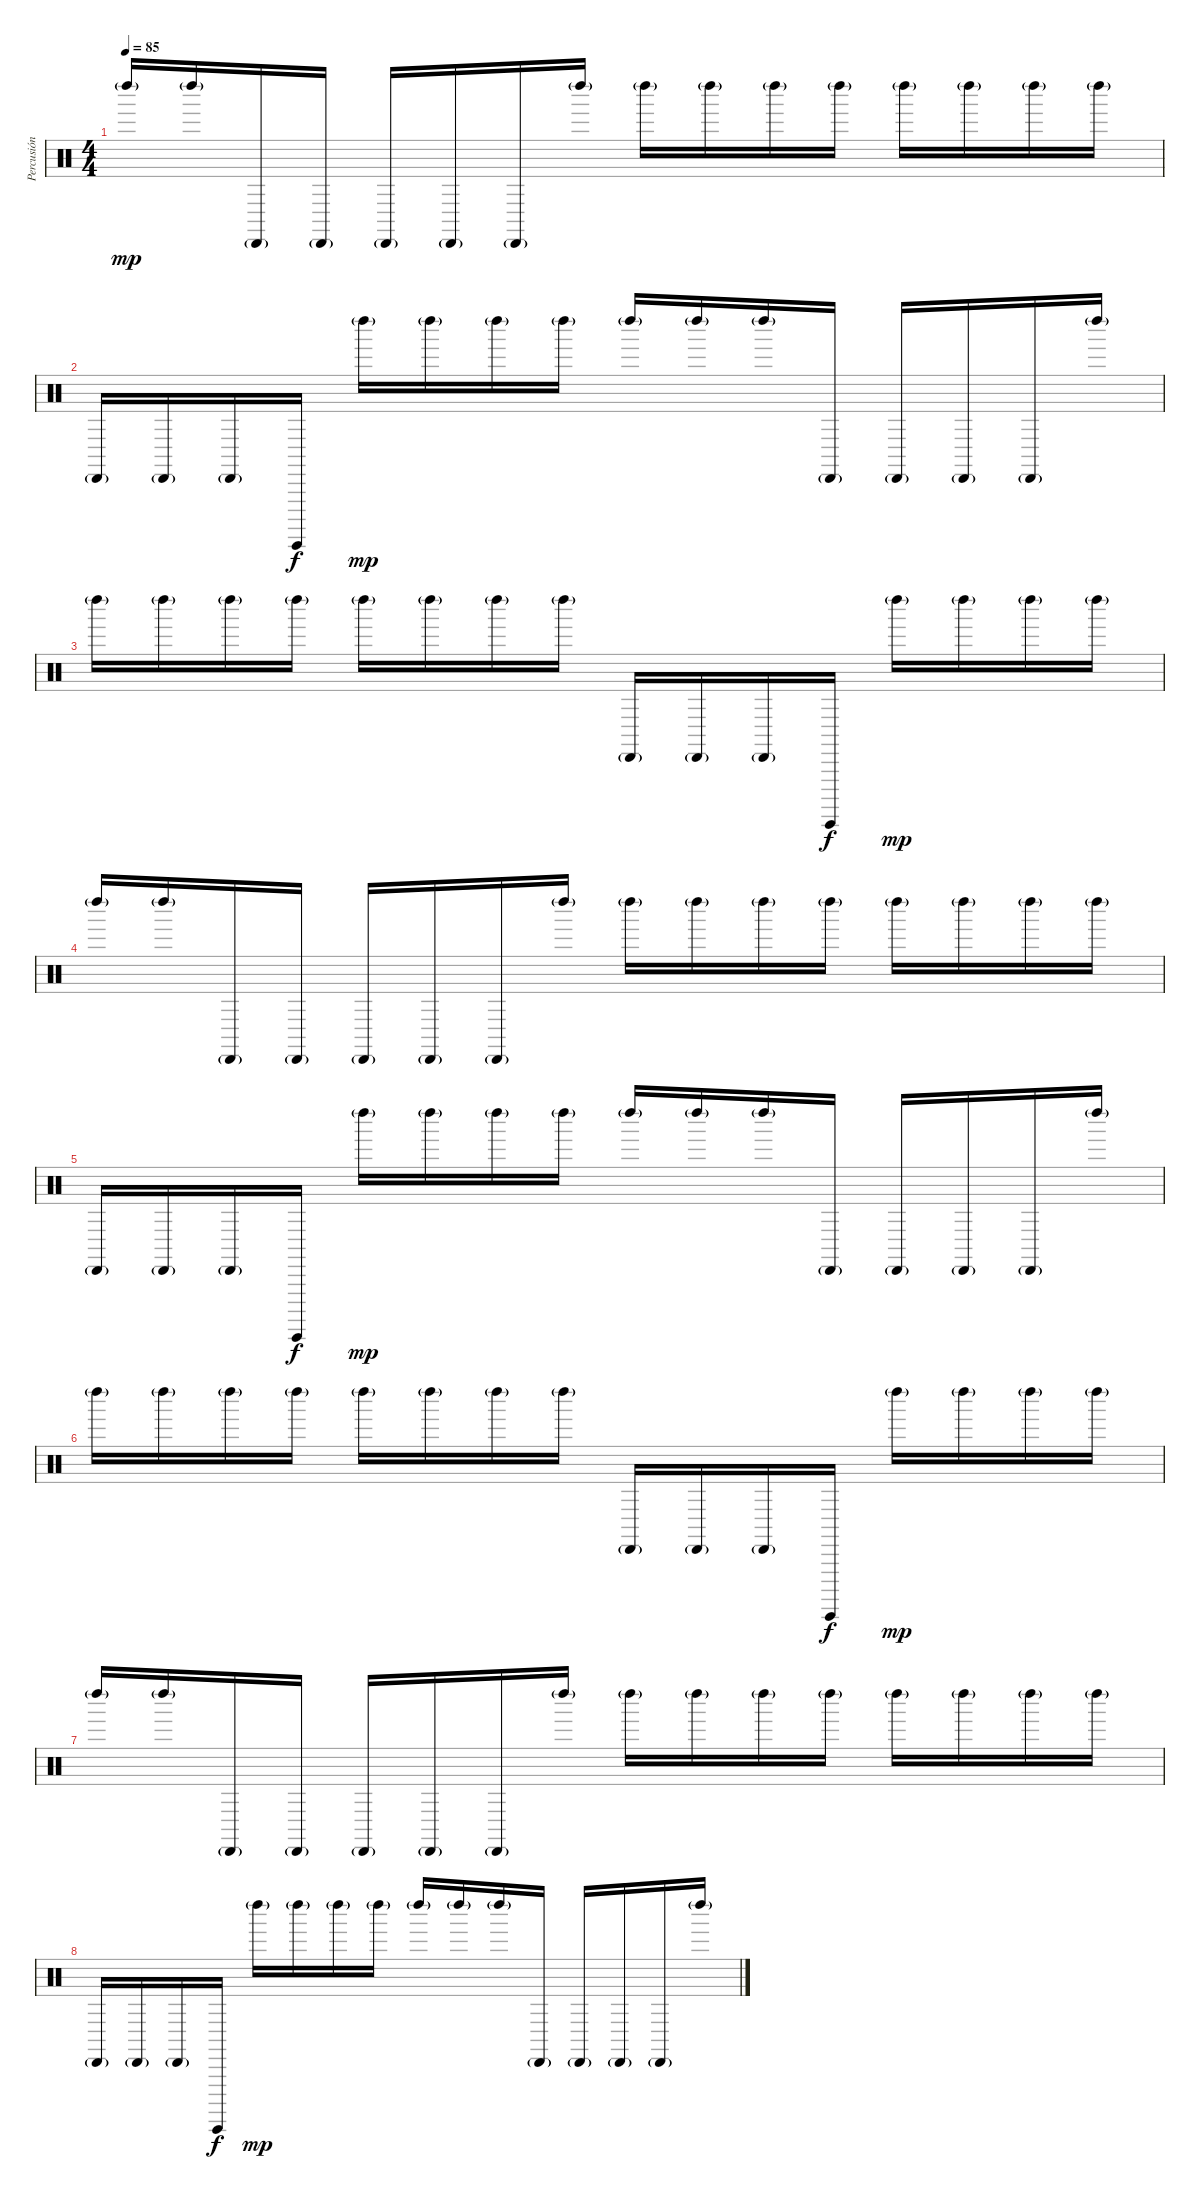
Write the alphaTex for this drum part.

\track ("Percusión" "Percusión") {instrument percussion}
\staff {score}
\articulation defaults
\ts (4 4)
\tempo 85
\clef neutral
\ks c "Left Maraca (hit)"{g}.16{dy mp} "Left Maraca (hit)"{g}.16 "Cabasa (hit)"{g}.16 "Cabasa (hit)"{g}.16 "Cabasa (hit)"{g}.16 "Cabasa (hit)"{g}.16 "Cabasa (hit)"{g}.16 "Left Maraca (hit)"{g}.16 "Left Maraca (hit)"{g}.16 "Left Maraca (hit)"{g}.16 "Left Maraca (hit)"{g}.16 "Left Maraca (hit)"{g}.16 "Left Maraca (hit)"{g}.16 "Left Maraca (hit)"{g}.16 "Left Maraca (hit)"{g}.16 "Left Maraca (hit)"{g}.16
|
"Cabasa (hit)"{g}.16 "Cabasa (hit)"{g}.16 "Cabasa (hit)"{g}.16 "Guiro (hit)".16{dy f} "Left Maraca (hit)"{g}.16{dy mp} "Left Maraca (hit)"{g}.16 "Left Maraca (hit)"{g}.16 "Left Maraca (hit)"{g}.16 "Left Maraca (hit)"{g}.16 "Left Maraca (hit)"{g}.16 "Left Maraca (hit)"{g}.16 "Cabasa (hit)"{g}.16 "Cabasa (hit)"{g}.16 "Cabasa (hit)"{g}.16 "Cabasa (hit)"{g}.16 "Left Maraca (hit)"{g}.16 |
"Left Maraca (hit)"{g}.16 "Left Maraca (hit)"{g}.16 "Left Maraca (hit)"{g}.16 "Left Maraca (hit)"{g}.16 "Left Maraca (hit)"{g}.16 "Left Maraca (hit)"{g}.16 "Left Maraca (hit)"{g}.16 "Left Maraca (hit)"{g}.16 "Cabasa (hit)"{g}.16 "Cabasa (hit)"{g}.16 "Cabasa (hit)"{g}.16 "Guiro (hit)".16{dy f} "Left Maraca (hit)"{g}.16{dy mp} "Left Maraca (hit)"{g}.16 "Left Maraca (hit)"{g}.16 "Left Maraca (hit)"{g}.16 |
"Left Maraca (hit)"{g}.16 "Left Maraca (hit)"{g}.16 "Cabasa (hit)"{g}.16 "Cabasa (hit)"{g}.16 "Cabasa (hit)"{g}.16 "Cabasa (hit)"{g}.16 "Cabasa (hit)"{g}.16 "Left Maraca (hit)"{g}.16 "Left Maraca (hit)"{g}.16 "Left Maraca (hit)"{g}.16 "Left Maraca (hit)"{g}.16 "Left Maraca (hit)"{g}.16 "Left Maraca (hit)"{g}.16 "Left Maraca (hit)"{g}.16 "Left Maraca (hit)"{g}.16 "Left Maraca (hit)"{g}.16 |
"Cabasa (hit)"{g}.16 "Cabasa (hit)"{g}.16 "Cabasa (hit)"{g}.16 "Guiro (hit)".16{dy f} "Left Maraca (hit)"{g}.16{dy mp} "Left Maraca (hit)"{g}.16 "Left Maraca (hit)"{g}.16 "Left Maraca (hit)"{g}.16 "Left Maraca (hit)"{g}.16 "Left Maraca (hit)"{g}.16 "Left Maraca (hit)"{g}.16 "Cabasa (hit)"{g}.16 "Cabasa (hit)"{g}.16 "Cabasa (hit)"{g}.16 "Cabasa (hit)"{g}.16 "Left Maraca (hit)"{g}.16 |
"Left Maraca (hit)"{g}.16 "Left Maraca (hit)"{g}.16 "Left Maraca (hit)"{g}.16 "Left Maraca (hit)"{g}.16 "Left Maraca (hit)"{g}.16 "Left Maraca (hit)"{g}.16 "Left Maraca (hit)"{g}.16 "Left Maraca (hit)"{g}.16 "Cabasa (hit)"{g}.16 "Cabasa (hit)"{g}.16 "Cabasa (hit)"{g}.16 "Guiro (hit)".16{dy f} "Left Maraca (hit)"{g}.16{dy mp} "Left Maraca (hit)"{g}.16 "Left Maraca (hit)"{g}.16 "Left Maraca (hit)"{g}.16 |
"Left Maraca (hit)"{g}.16 "Left Maraca (hit)"{g}.16 "Cabasa (hit)"{g}.16 "Cabasa (hit)"{g}.16 "Cabasa (hit)"{g}.16 "Cabasa (hit)"{g}.16 "Cabasa (hit)"{g}.16 "Left Maraca (hit)"{g}.16 "Left Maraca (hit)"{g}.16 "Left Maraca (hit)"{g}.16 "Left Maraca (hit)"{g}.16 "Left Maraca (hit)"{g}.16 "Left Maraca (hit)"{g}.16 "Left Maraca (hit)"{g}.16 "Left Maraca (hit)"{g}.16 "Left Maraca (hit)"{g}.16 |
"Cabasa (hit)"{g}.16 "Cabasa (hit)"{g}.16 "Cabasa (hit)"{g}.16 "Guiro (hit)".16{dy f} "Left Maraca (hit)"{g}.16{dy mp} "Left Maraca (hit)"{g}.16 "Left Maraca (hit)"{g}.16 "Left Maraca (hit)"{g}.16 "Left Maraca (hit)"{g}.16 "Left Maraca (hit)"{g}.16 "Left Maraca (hit)"{g}.16 "Cabasa (hit)"{g}.16 "Cabasa (hit)"{g}.16 "Cabasa (hit)"{g}.16 "Cabasa (hit)"{g}.16 "Left Maraca (hit)"{g}.16
